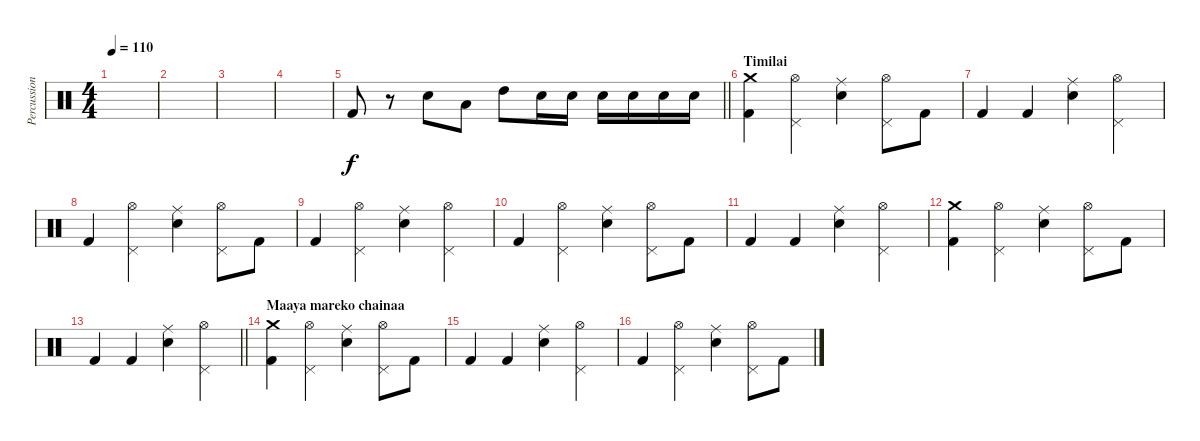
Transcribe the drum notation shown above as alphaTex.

\track ("Percussion" "Percussion") {instrument percussion}
\staff {score}
\articulation defaults
\ts (4 4)
\tempo 110
\clef neutral
\ks c
|
|
|
|
\barLineRight lightlight "Kick (hit) 2".8
r.8 "Electric Snare (hit)".8 "Low Tom (hit)".8 "High Tom (hit)".8 "Electric Snare (hit)".16 "Electric Snare (hit)".16 "Electric Snare (hit)".16 "Electric Snare (hit)".16 "Electric Snare (hit)".16 "Electric Snare (hit)".16 |
\section ("" "Timilai ")
("Crash medium (hit)" "Kick (hit) 2").4 ("Hi-Hat (open)" "Pedal Hi-Hat (hit)").4 ("Ride (middle)" "Electric Snare (hit)").4 ("Hi-Hat (open)" "Pedal Hi-Hat (hit)").8 "Kick (hit) 2".8 |
"Kick (hit) 2".4 "Kick (hit) 2".4 ("Ride (middle)" "Electric Snare (hit)").4 ("Hi-Hat (open)" "Pedal Hi-Hat (hit)").4 |
"Kick (hit) 2".4 ("Hi-Hat (open)" "Pedal Hi-Hat (hit)").4 ("Ride (middle)" "Electric Snare (hit)").4 ("Hi-Hat (open)" "Pedal Hi-Hat (hit)").8 "Kick (hit) 2".8 |
"Kick (hit) 2".4 ("Hi-Hat (open)" "Pedal Hi-Hat (hit)").4 ("Ride (middle)" "Electric Snare (hit)").4 ("Hi-Hat (open)" "Pedal Hi-Hat (hit)").4 |
"Kick (hit) 2".4 ("Hi-Hat (open)" "Pedal Hi-Hat (hit)").4 ("Ride (middle)" "Electric Snare (hit)").4 ("Hi-Hat (open)" "Pedal Hi-Hat (hit)").8 "Kick (hit) 2".8 |
"Kick (hit) 2".4 "Kick (hit) 2".4 ("Ride (middle)" "Electric Snare (hit)").4 ("Hi-Hat (open)" "Pedal Hi-Hat (hit)").4 |
("Crash medium (hit)" "Kick (hit) 2").4 ("Hi-Hat (open)" "Pedal Hi-Hat (hit)").4 ("Ride (middle)" "Electric Snare (hit)").4 ("Hi-Hat (open)" "Pedal Hi-Hat (hit)").8 "Kick (hit) 2".8 |
\barLineRight lightlight "Kick (hit) 2".4 "Kick (hit) 2".4
("Ride (middle)" "Electric Snare (hit)").4 ("Hi-Hat (open)" "Pedal Hi-Hat (hit)").4 |
\section ("" "Maaya mareko chainaa")
("Crash medium (hit)" "Kick (hit) 2").4 ("Hi-Hat (open)" "Pedal Hi-Hat (hit)").4 ("Ride (middle)" "Electric Snare (hit)").4 ("Hi-Hat (open)" "Pedal Hi-Hat (hit)").8 "Kick (hit) 2".8 |
"Kick (hit) 2".4 "Kick (hit) 2".4 ("Ride (middle)" "Electric Snare (hit)").4 ("Hi-Hat (open)" "Pedal Hi-Hat (hit)").4 |
"Kick (hit) 2".4 ("Hi-Hat (open)" "Pedal Hi-Hat (hit)").4 ("Ride (middle)" "Electric Snare (hit)").4 ("Hi-Hat (open)" "Pedal Hi-Hat (hit)").8 "Kick (hit) 2".8
